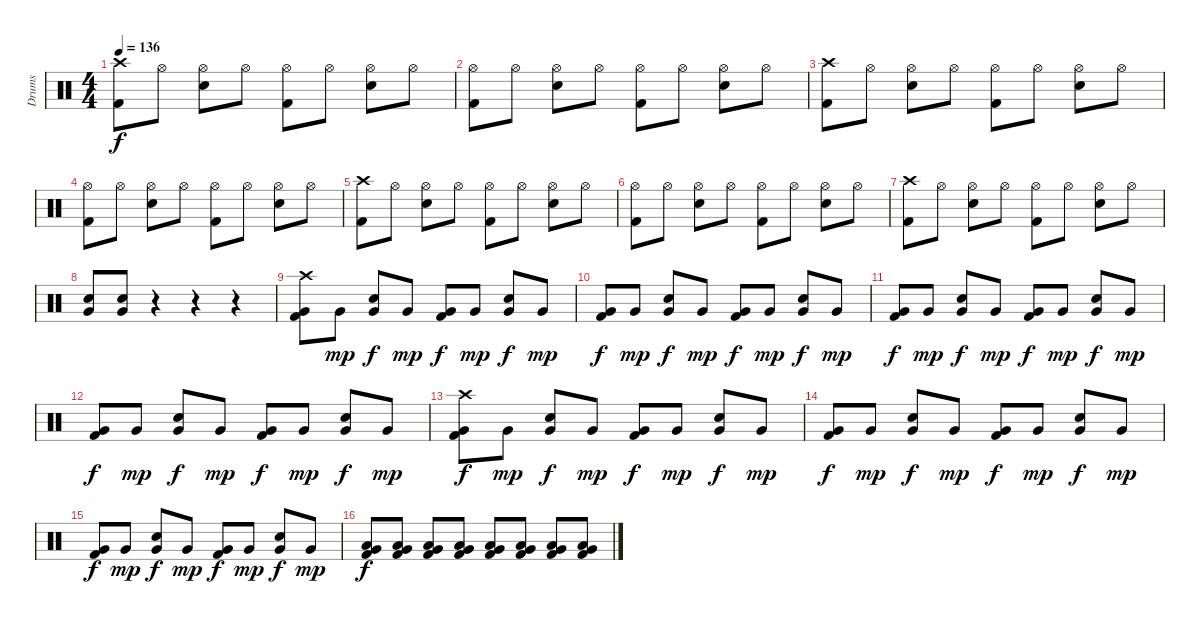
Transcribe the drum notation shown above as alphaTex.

\track ("Drums" "Drums") {instrument percussion}
\staff {score}
\articulation defaults
\ts (4 4)
\tempo 136
\clef neutral
\ks c
("Crash high (hit)" "Kick (hit) 2").8{dy f} "Hi-Hat (open)".8 ("Hi-Hat (open)" "Snare (hit) 2").8 "Hi-Hat (open)".8 ("Hi-Hat (open)" "Kick (hit) 2").8 "Hi-Hat (open)".8 ("Hi-Hat (open)" "Snare (hit) 2").8 "Hi-Hat (open)".8 |
("Hi-Hat (open)" "Kick (hit) 2").8 "Hi-Hat (open)".8 ("Hi-Hat (open)" "Snare (hit) 2").8 "Hi-Hat (open)".8 ("Hi-Hat (open)" "Kick (hit) 2").8 "Hi-Hat (open)".8 ("Hi-Hat (open)" "Snare (hit) 2").8 "Hi-Hat (open)".8 |
("Crash high (hit)" "Kick (hit) 2").8 "Hi-Hat (open)".8 ("Hi-Hat (open)" "Snare (hit) 2").8 "Hi-Hat (open)".8 ("Hi-Hat (open)" "Kick (hit) 2").8 "Hi-Hat (open)".8 ("Hi-Hat (open)" "Snare (hit) 2").8 "Hi-Hat (open)".8 |
("Hi-Hat (open)" "Kick (hit) 2").8 "Hi-Hat (open)".8 ("Hi-Hat (open)" "Snare (hit) 2").8 "Hi-Hat (open)".8 ("Hi-Hat (open)" "Kick (hit) 2").8 "Hi-Hat (open)".8 ("Hi-Hat (open)" "Snare (hit) 2").8 "Hi-Hat (open)".8 |
("Crash high (hit)" "Kick (hit) 2").8 "Hi-Hat (open)".8 ("Hi-Hat (open)" "Snare (hit) 2").8 "Hi-Hat (open)".8 ("Hi-Hat (open)" "Kick (hit) 2").8 "Hi-Hat (open)".8 ("Hi-Hat (open)" "Snare (hit) 2").8 "Hi-Hat (open)".8 |
("Hi-Hat (open)" "Kick (hit) 2").8 "Hi-Hat (open)".8 ("Hi-Hat (open)" "Snare (hit) 2").8 "Hi-Hat (open)".8 ("Hi-Hat (open)" "Kick (hit) 2").8 "Hi-Hat (open)".8 ("Hi-Hat (open)" "Snare (hit) 2").8 "Hi-Hat (open)".8 |
("Crash high (hit)" "Kick (hit) 2").8 "Hi-Hat (open)".8 ("Hi-Hat (open)" "Snare (hit) 2").8 "Hi-Hat (open)".8 ("Hi-Hat (open)" "Kick (hit) 2").8 "Hi-Hat (open)".8 ("Hi-Hat (open)" "Snare (hit) 2").8 "Hi-Hat (open)".8 |
("Very Low Tom (hit)" "Snare (hit) 2").8 ("Very Low Tom (hit)" "Snare (hit) 2").8 r.4 r.4 r.4 |
("Crash high (hit)" "Very Low Tom (hit)" "Kick (hit) 2").8 "Very Low Tom (hit)".8{dy mp} ("Very Low Tom (hit)" "Snare (hit) 2").8{dy f} "Very Low Tom (hit)".8{dy mp} ("Very Low Tom (hit)" "Kick (hit) 2").8{dy f} "Very Low Tom (hit)".8{dy mp} ("Very Low Tom (hit)" "Snare (hit) 2").8{dy f} "Very Low Tom (hit)".8{dy mp} |
("Very Low Tom (hit)" "Kick (hit) 2").8{dy f} "Very Low Tom (hit)".8{dy mp} ("Very Low Tom (hit)" "Snare (hit) 2").8{dy f} "Very Low Tom (hit)".8{dy mp} ("Very Low Tom (hit)" "Kick (hit) 2").8{dy f} "Very Low Tom (hit)".8{dy mp} ("Very Low Tom (hit)" "Snare (hit) 2").8{dy f} "Very Low Tom (hit)".8{dy mp} |
("Very Low Tom (hit)" "Kick (hit) 2").8{dy f} "Very Low Tom (hit)".8{dy mp} ("Very Low Tom (hit)" "Snare (hit) 2").8{dy f} "Very Low Tom (hit)".8{dy mp} ("Very Low Tom (hit)" "Kick (hit) 2").8{dy f} "Very Low Tom (hit)".8{dy mp} ("Very Low Tom (hit)" "Snare (hit) 2").8{dy f} "Very Low Tom (hit)".8{dy mp} |
("Very Low Tom (hit)" "Kick (hit) 2").8{dy f} "Very Low Tom (hit)".8{dy mp} ("Very Low Tom (hit)" "Snare (hit) 2").8{dy f} "Very Low Tom (hit)".8{dy mp} ("Very Low Tom (hit)" "Kick (hit) 2").8{dy f} "Very Low Tom (hit)".8{dy mp} ("Very Low Tom (hit)" "Snare (hit) 2").8{dy f} "Very Low Tom (hit)".8{dy mp} |
("Crash high (hit)" "Very Low Tom (hit)" "Kick (hit) 2").8{dy f} "Very Low Tom (hit)".8{dy mp} ("Very Low Tom (hit)" "Snare (hit) 2").8{dy f} "Very Low Tom (hit)".8{dy mp} ("Very Low Tom (hit)" "Kick (hit) 2").8{dy f} "Very Low Tom (hit)".8{dy mp} ("Very Low Tom (hit)" "Snare (hit) 2").8{dy f} "Very Low Tom (hit)".8{dy mp} |
("Very Low Tom (hit)" "Kick (hit) 2").8{dy f} "Very Low Tom (hit)".8{dy mp} ("Very Low Tom (hit)" "Snare (hit) 2").8{dy f} "Very Low Tom (hit)".8{dy mp} ("Very Low Tom (hit)" "Kick (hit) 2").8{dy f} "Very Low Tom (hit)".8{dy mp} ("Very Low Tom (hit)" "Snare (hit) 2").8{dy f} "Very Low Tom (hit)".8{dy mp} |
("Very Low Tom (hit)" "Kick (hit) 2").8{dy f} "Very Low Tom (hit)".8{dy mp} ("Very Low Tom (hit)" "Snare (hit) 2").8{dy f} "Very Low Tom (hit)".8{dy mp} ("Very Low Tom (hit)" "Kick (hit) 2").8{dy f} "Very Low Tom (hit)".8{dy mp} ("Very Low Tom (hit)" "Snare (hit) 2").8{dy f} "Very Low Tom (hit)".8{dy mp} |
("Low Tom (hit)" "Very Low Tom (hit)" "Kick (hit) 2").8{dy f} ("Low Tom (hit)" "Very Low Tom (hit)" "Kick (hit) 2").8 ("Low Tom (hit)" "Very Low Tom (hit)" "Kick (hit) 2").8 ("Low Tom (hit)" "Very Low Tom (hit)" "Kick (hit) 2").8 ("Low Tom (hit)" "Very Low Tom (hit)" "Kick (hit) 2").8 ("Low Tom (hit)" "Very Low Tom (hit)" "Kick (hit) 2").8 ("Low Tom (hit)" "Very Low Tom (hit)" "Kick (hit) 2").8 ("Low Tom (hit)" "Very Low Tom (hit)" "Kick (hit) 2").8
